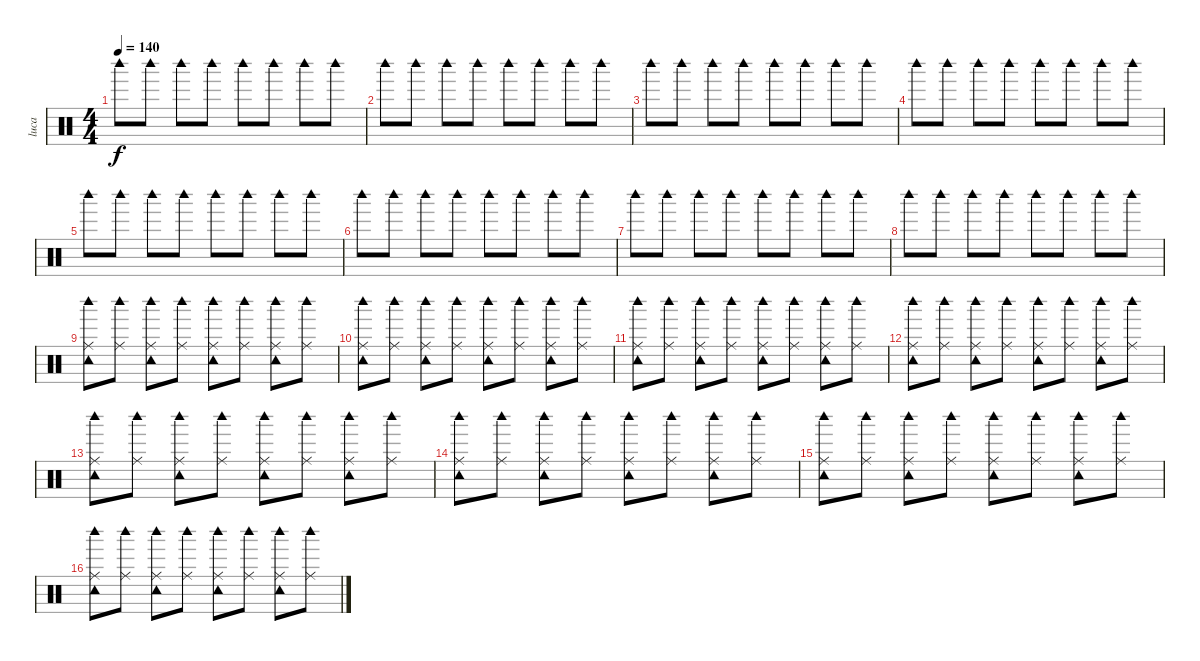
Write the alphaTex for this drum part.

\track ("luca" "luca") {instrument percussion}
\staff {score}
\articulation defaults
\ts (4 4)
\tempo 140
\clef neutral
\ks c "Woodblock high (hit)".8{dy f} "Woodblock high (hit)".8 "Woodblock high (hit)".8 "Woodblock high (hit)".8 "Woodblock high (hit)".8 "Woodblock high (hit)".8 "Woodblock high (hit)".8 "Woodblock high (hit)".8
|
"Woodblock high (hit)".8 "Woodblock high (hit)".8 "Woodblock high (hit)".8 "Woodblock high (hit)".8 "Woodblock high (hit)".8 "Woodblock high (hit)".8 "Woodblock high (hit)".8 "Woodblock high (hit)".8 |
"Woodblock high (hit)".8 "Woodblock high (hit)".8 "Woodblock high (hit)".8 "Woodblock high (hit)".8 "Woodblock high (hit)".8 "Woodblock high (hit)".8 "Woodblock high (hit)".8 "Woodblock high (hit)".8 |
"Woodblock high (hit)".8 "Woodblock high (hit)".8 "Woodblock high (hit)".8 "Woodblock high (hit)".8 "Woodblock high (hit)".8 "Woodblock high (hit)".8 "Woodblock high (hit)".8 "Woodblock high (hit)".8 |
"Woodblock high (hit)".8 "Woodblock high (hit)".8 "Woodblock high (hit)".8 "Woodblock high (hit)".8 "Woodblock high (hit)".8 "Woodblock high (hit)".8 "Woodblock high (hit)".8 "Woodblock high (hit)".8 |
"Woodblock high (hit)".8 "Woodblock high (hit)".8 "Woodblock high (hit)".8 "Woodblock high (hit)".8 "Woodblock high (hit)".8 "Woodblock high (hit)".8 "Woodblock high (hit)".8 "Woodblock high (hit)".8 |
"Woodblock high (hit)".8 "Woodblock high (hit)".8 "Woodblock high (hit)".8 "Woodblock high (hit)".8 "Woodblock high (hit)".8 "Woodblock high (hit)".8 "Woodblock high (hit)".8 "Woodblock high (hit)".8 |
"Woodblock high (hit)".8 "Woodblock high (hit)".8 "Woodblock high (hit)".8 "Woodblock high (hit)".8 "Woodblock high (hit)".8 "Woodblock high (hit)".8 "Woodblock high (hit)".8 "Woodblock high (hit)".8 |
("Woodblock high (hit)" "Ride (middle)" "Tambourine (hit)").8 ("Woodblock high (hit)" "Ride (middle)").8 ("Woodblock high (hit)" "Ride (middle)" "Tambourine (hit)").8 ("Woodblock high (hit)" "Ride (middle)").8 ("Woodblock high (hit)" "Ride (middle)" "Tambourine (hit)").8 ("Woodblock high (hit)" "Ride (middle)").8 ("Woodblock high (hit)" "Ride (middle)" "Tambourine (hit)").8 ("Woodblock high (hit)" "Ride (middle)").8 |
("Woodblock high (hit)" "Ride (middle)" "Tambourine (hit)").8 ("Woodblock high (hit)" "Ride (middle)").8 ("Woodblock high (hit)" "Ride (middle)" "Tambourine (hit)").8 ("Woodblock high (hit)" "Ride (middle)").8 ("Woodblock high (hit)" "Ride (middle)" "Tambourine (hit)").8 ("Woodblock high (hit)" "Ride (middle)").8 ("Woodblock high (hit)" "Ride (middle)" "Tambourine (hit)").8 ("Woodblock high (hit)" "Ride (middle)").8 |
("Woodblock high (hit)" "Ride (middle)" "Tambourine (hit)").8 ("Woodblock high (hit)" "Ride (middle)").8 ("Woodblock high (hit)" "Ride (middle)" "Tambourine (hit)").8 ("Woodblock high (hit)" "Ride (middle)").8 ("Woodblock high (hit)" "Ride (middle)" "Tambourine (hit)").8 ("Woodblock high (hit)" "Ride (middle)").8 ("Woodblock high (hit)" "Ride (middle)" "Tambourine (hit)").8 ("Woodblock high (hit)" "Ride (middle)").8 |
("Woodblock high (hit)" "Ride (middle)" "Tambourine (hit)").8 ("Woodblock high (hit)" "Ride (middle)").8 ("Woodblock high (hit)" "Ride (middle)" "Tambourine (hit)").8 ("Woodblock high (hit)" "Ride (middle)").8 ("Woodblock high (hit)" "Ride (middle)" "Tambourine (hit)").8 ("Woodblock high (hit)" "Ride (middle)").8 ("Woodblock high (hit)" "Ride (middle)" "Tambourine (hit)").8 ("Woodblock high (hit)" "Ride (middle)").8 |
("Woodblock high (hit)" "Ride (middle)" "Tambourine (hit)").8 ("Woodblock high (hit)" "Ride (middle)").8 ("Woodblock high (hit)" "Ride (middle)" "Tambourine (hit)").8 ("Woodblock high (hit)" "Ride (middle)").8 ("Woodblock high (hit)" "Ride (middle)" "Tambourine (hit)").8 ("Woodblock high (hit)" "Ride (middle)").8 ("Woodblock high (hit)" "Ride (middle)" "Tambourine (hit)").8 ("Woodblock high (hit)" "Ride (middle)").8 |
("Woodblock high (hit)" "Ride (middle)" "Tambourine (hit)").8 ("Woodblock high (hit)" "Ride (middle)").8 ("Woodblock high (hit)" "Ride (middle)" "Tambourine (hit)").8 ("Woodblock high (hit)" "Ride (middle)").8 ("Woodblock high (hit)" "Ride (middle)" "Tambourine (hit)").8 ("Woodblock high (hit)" "Ride (middle)").8 ("Woodblock high (hit)" "Ride (middle)" "Tambourine (hit)").8 ("Woodblock high (hit)" "Ride (middle)").8 |
("Woodblock high (hit)" "Ride (middle)" "Tambourine (hit)").8 ("Woodblock high (hit)" "Ride (middle)").8 ("Woodblock high (hit)" "Ride (middle)" "Tambourine (hit)").8 ("Woodblock high (hit)" "Ride (middle)").8 ("Woodblock high (hit)" "Ride (middle)" "Tambourine (hit)").8 ("Woodblock high (hit)" "Ride (middle)").8 ("Woodblock high (hit)" "Ride (middle)" "Tambourine (hit)").8 ("Woodblock high (hit)" "Ride (middle)").8 |
("Woodblock high (hit)" "Ride (middle)" "Tambourine (hit)").8 ("Woodblock high (hit)" "Ride (middle)").8 ("Woodblock high (hit)" "Ride (middle)" "Tambourine (hit)").8 ("Woodblock high (hit)" "Ride (middle)").8 ("Woodblock high (hit)" "Ride (middle)" "Tambourine (hit)").8 ("Woodblock high (hit)" "Ride (middle)").8 ("Woodblock high (hit)" "Ride (middle)" "Tambourine (hit)").8 ("Woodblock high (hit)" "Ride (middle)").8
